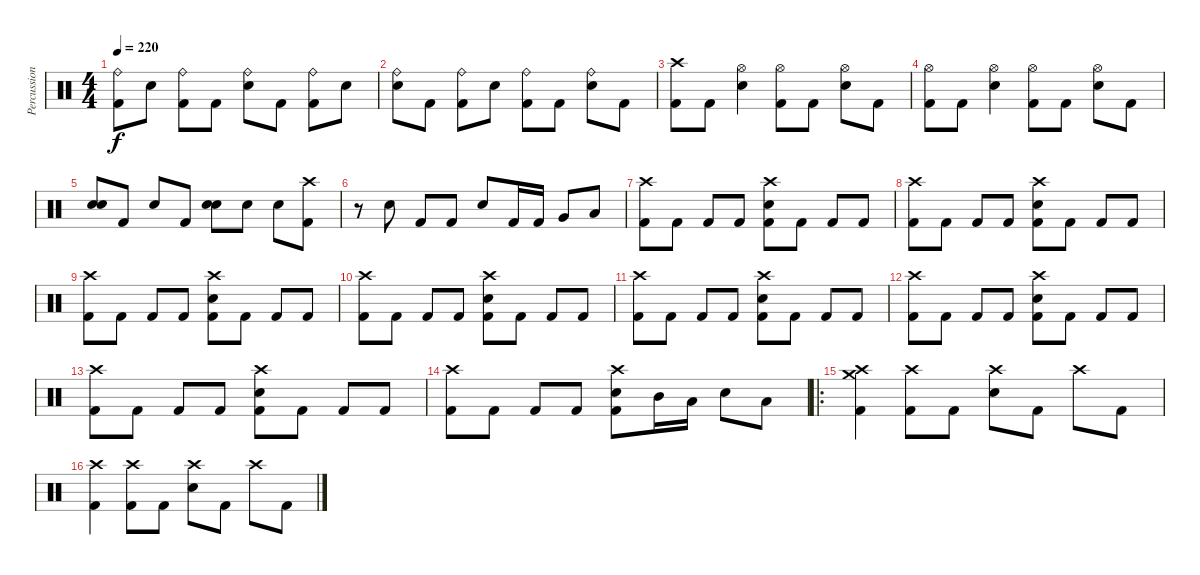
\track ("Percussions" "Percussion") {instrument percussion}
\staff {score}
\articulation defaults
\ts (4 4)
\tempo 220
\clef neutral
\ks c
("Ride (bell)" "Kick (hit) 2").8{dy f} "Snare (hit) 2".8 ("Ride (bell)" "Kick (hit) 2").8 "Kick (hit) 2".8 ("Ride (bell)" "Snare (hit) 2").8 "Kick (hit) 2".8 ("Ride (bell)" "Kick (hit) 2").8 "Snare (hit) 2".8 |
("Ride (bell)" "Snare (hit) 2").8 "Kick (hit) 2".8 ("Ride (bell)" "Kick (hit) 2").8 "Snare (hit) 2".8 ("Ride (bell)" "Kick (hit) 2").8 "Kick (hit) 2".8 ("Ride (bell)" "Snare (hit) 2").8 "Kick (hit) 2".8 |
("Crash high (hit)" "Kick (hit) 2").8 "Kick (hit) 2".8 ("Hi-Hat (open)" "Snare (hit) 2").4 ("Hi-Hat (open)" "Kick (hit) 2").8 "Kick (hit) 2".8 ("Hi-Hat (open)" "Snare (hit) 2").8 "Kick (hit) 2".8 |
("Hi-Hat (open)" "Kick (hit) 2").8 "Kick (hit) 2".8 ("Hi-Hat (open)" "Snare (hit) 2").4 ("Hi-Hat (open)" "Kick (hit) 2").8 "Kick (hit) 2".8 ("Hi-Hat (open)" "Snare (hit) 2").8 "Kick (hit) 2".8 |
("Snare (hit) 2" "Snare (hit) 2").8{bd 120} "Kick (hit) 2".8 "Snare (hit) 2".8 "Kick (hit) 2".8 ("Snare (hit) 2" "Snare (hit) 2").8{bd 120} "Snare (hit) 2".8 "Snare (hit) 2".8 ("Crash high (hit)" "Kick (hit) 2").8 |
r.8 "Snare (hit) 2".8 "Kick (hit) 2".8 "Kick (hit) 2".8 "Snare (hit) 2".8 "Kick (hit) 2".16 "Kick (hit) 2".16 "Very Low Tom (hit)".8 "Low Floor Tom (hit)".8 |
("Crash high (hit)" "Kick (hit) 2").8 "Kick (hit) 2".8 "Kick (hit) 2".8 "Kick (hit) 2".8 ("Crash high (hit)" "Snare (hit) 2" "Kick (hit) 2").8 "Kick (hit) 2".8 "Kick (hit) 2".8 "Kick (hit) 2".8 |
("Crash high (hit)" "Kick (hit) 2").8 "Kick (hit) 2".8 "Kick (hit) 2".8 "Kick (hit) 2".8 ("Crash high (hit)" "Snare (hit) 2" "Kick (hit) 2").8 "Kick (hit) 2".8 "Kick (hit) 2".8 "Kick (hit) 2".8 |
("Crash high (hit)" "Kick (hit) 2").8 "Kick (hit) 2".8 "Kick (hit) 2".8 "Kick (hit) 2".8 ("Crash high (hit)" "Snare (hit) 2" "Kick (hit) 2").8 "Kick (hit) 2".8 "Kick (hit) 2".8 "Kick (hit) 2".8 |
("Crash high (hit)" "Kick (hit) 2").8 "Kick (hit) 2".8 "Kick (hit) 2".8 "Kick (hit) 2".8 ("Crash high (hit)" "Snare (hit) 2" "Kick (hit) 2").8 "Kick (hit) 2".8 "Kick (hit) 2".8 "Kick (hit) 2".8 |
("Crash high (hit)" "Kick (hit) 2").8 "Kick (hit) 2".8 "Kick (hit) 2".8 "Kick (hit) 2".8 ("Crash high (hit)" "Snare (hit) 2" "Kick (hit) 2").8 "Kick (hit) 2".8 "Kick (hit) 2".8 "Kick (hit) 2".8 |
("Crash high (hit)" "Kick (hit) 2").8 "Kick (hit) 2".8 "Kick (hit) 2".8 "Kick (hit) 2".8 ("Crash high (hit)" "Snare (hit) 2" "Kick (hit) 2").8 "Kick (hit) 2".8 "Kick (hit) 2".8 "Kick (hit) 2".8 |
("Crash high (hit)" "Kick (hit) 2").8 "Kick (hit) 2".8 "Kick (hit) 2".8 "Kick (hit) 2".8 ("Crash high (hit)" "Snare (hit) 2" "Kick (hit) 2").8 "Kick (hit) 2".8 "Kick (hit) 2".8 "Kick (hit) 2".8 |
("Crash high (hit)" "Kick (hit) 2").8 "Kick (hit) 2".8 "Kick (hit) 2".8 "Kick (hit) 2".8 ("Crash high (hit)" "Snare (hit) 2" "Kick (hit) 2").8 "Mid Tom (hit)".16 "Low Tom (hit)".16 "Snare (hit) 2".8 "Low Floor Tom (hit)".8 |
\ro
("Crash high (hit)" "Crash medium (hit)" "Kick (hit) 2").4 ("Crash high (hit)" "Kick (hit) 2").8 "Kick (hit) 2".8 ("Crash high (hit)" "Snare (hit) 2").8 "Kick (hit) 2".8 "Crash high (hit)".8 "Kick (hit) 2".8 |
("Crash high (hit)" "Kick (hit) 2").4 ("Crash high (hit)" "Kick (hit) 2").8 "Kick (hit) 2".8 ("Crash high (hit)" "Snare (hit) 2").8 "Kick (hit) 2".8 "Crash high (hit)".8 "Kick (hit) 2".8
